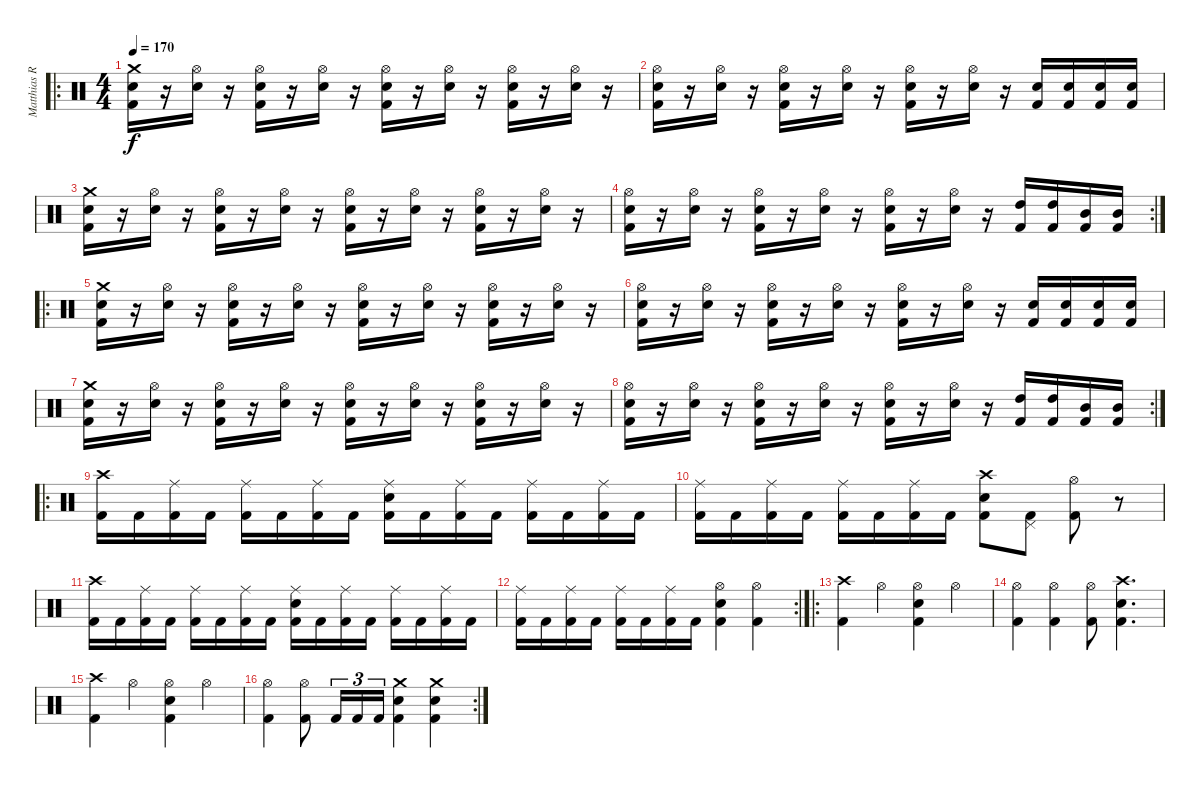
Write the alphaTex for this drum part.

\track ("Matthias R." "Matthias R") {instrument percussion}
\staff {score}
\articulation defaults
\ro
\ts (4 4)
\tempo 170
\clef neutral
\ks c
("Kick (hit) 2" "Snare (hit) 2" "Crash medium (hit)").16{dy f} r.16 ("Snare (hit) 2" "Hi-Hat (open)").16 r.16 ("Kick (hit) 2" "Snare (hit) 2" "Hi-Hat (open)").16 r.16 ("Snare (hit) 2" "Hi-Hat (open)").16 r.16 ("Kick (hit) 2" "Snare (hit) 2" "Hi-Hat (open)").16 r.16 ("Snare (hit) 2" "Hi-Hat (open)").16 r.16 ("Kick (hit) 2" "Snare (hit) 2" "Hi-Hat (open)").16 r.16 ("Snare (hit) 2" "Hi-Hat (open)").16 r.16 |
("Kick (hit) 2" "Snare (hit) 2" "Hi-Hat (open)").16 r.16 ("Snare (hit) 2" "Hi-Hat (open)").16 r.16 ("Kick (hit) 2" "Snare (hit) 2" "Hi-Hat (open)").16 r.16 ("Snare (hit) 2" "Hi-Hat (open)").16 r.16 ("Kick (hit) 2" "Snare (hit) 2" "Hi-Hat (open)").16 r.16 ("Snare (hit) 2" "Hi-Hat (open)").16 r.16 ("Kick (hit) 2" "Snare (hit) 2").16 ("Kick (hit) 2" "Snare (hit) 2").16 ("Kick (hit) 2" "Snare (hit) 2").16 ("Kick (hit) 2" "Snare (hit) 2").16 |
("Kick (hit) 2" "Snare (hit) 2" "Crash medium (hit)").16 r.16 ("Snare (hit) 2" "Hi-Hat (open)").16 r.16 ("Kick (hit) 2" "Snare (hit) 2" "Hi-Hat (open)").16 r.16 ("Snare (hit) 2" "Hi-Hat (open)").16 r.16 ("Kick (hit) 2" "Snare (hit) 2" "Hi-Hat (open)").16 r.16 ("Snare (hit) 2" "Hi-Hat (open)").16 r.16 ("Kick (hit) 2" "Snare (hit) 2" "Hi-Hat (open)").16 r.16 ("Snare (hit) 2" "Hi-Hat (open)").16 r.16 |
\rc 2
("Kick (hit) 2" "Snare (hit) 2" "Hi-Hat (open)").16 r.16 ("Snare (hit) 2" "Hi-Hat (open)").16 r.16 ("Kick (hit) 2" "Snare (hit) 2" "Hi-Hat (open)").16 r.16 ("Snare (hit) 2" "Hi-Hat (open)").16 r.16 ("Kick (hit) 2" "Snare (hit) 2" "Hi-Hat (open)").16 r.16 ("Snare (hit) 2" "Hi-Hat (open)").16 r.16 ("Kick (hit) 2" "High Tom (hit)").16 ("Kick (hit) 2" "High Tom (hit)").16 ("Kick (hit) 2" "Mid Tom (hit)").16 ("Kick (hit) 2" "Mid Tom (hit)").16 |
\ro
("Kick (hit) 2" "Snare (hit) 2" "Crash medium (hit)").16 r.16 ("Snare (hit) 2" "Hi-Hat (open)").16 r.16 ("Kick (hit) 2" "Snare (hit) 2" "Hi-Hat (open)").16 r.16 ("Snare (hit) 2" "Hi-Hat (open)").16 r.16 ("Kick (hit) 2" "Snare (hit) 2" "Hi-Hat (open)").16 r.16 ("Snare (hit) 2" "Hi-Hat (open)").16 r.16 ("Kick (hit) 2" "Snare (hit) 2" "Hi-Hat (open)").16 r.16 ("Snare (hit) 2" "Hi-Hat (open)").16 r.16 |
("Kick (hit) 2" "Snare (hit) 2" "Hi-Hat (open)").16 r.16 ("Snare (hit) 2" "Hi-Hat (open)").16 r.16 ("Kick (hit) 2" "Snare (hit) 2" "Hi-Hat (open)").16 r.16 ("Snare (hit) 2" "Hi-Hat (open)").16 r.16 ("Kick (hit) 2" "Snare (hit) 2" "Hi-Hat (open)").16 r.16 ("Snare (hit) 2" "Hi-Hat (open)").16 r.16 ("Kick (hit) 2" "Snare (hit) 2").16 ("Kick (hit) 2" "Snare (hit) 2").16 ("Kick (hit) 2" "Snare (hit) 2").16 ("Kick (hit) 2" "Snare (hit) 2").16 |
("Kick (hit) 2" "Snare (hit) 2" "Crash medium (hit)").16 r.16 ("Snare (hit) 2" "Hi-Hat (open)").16 r.16 ("Kick (hit) 2" "Snare (hit) 2" "Hi-Hat (open)").16 r.16 ("Snare (hit) 2" "Hi-Hat (open)").16 r.16 ("Kick (hit) 2" "Snare (hit) 2" "Hi-Hat (open)").16 r.16 ("Snare (hit) 2" "Hi-Hat (open)").16 r.16 ("Kick (hit) 2" "Snare (hit) 2" "Hi-Hat (open)").16 r.16 ("Snare (hit) 2" "Hi-Hat (open)").16 r.16 |
\rc 2
("Kick (hit) 2" "Snare (hit) 2" "Hi-Hat (open)").16 r.16 ("Snare (hit) 2" "Hi-Hat (open)").16 r.16 ("Kick (hit) 2" "Snare (hit) 2" "Hi-Hat (open)").16 r.16 ("Snare (hit) 2" "Hi-Hat (open)").16 r.16 ("Kick (hit) 2" "Snare (hit) 2" "Hi-Hat (open)").16 r.16 ("Snare (hit) 2" "Hi-Hat (open)").16 r.16 ("Kick (hit) 2" "High Tom (hit)").16 ("Kick (hit) 2" "High Tom (hit)").16 ("Kick (hit) 2" "Mid Tom (hit)").16 ("Kick (hit) 2" "Mid Tom (hit)").16 |
\ro
("Kick (hit) 2" "Crash high (hit)").16 "Kick (hit) 2".16 ("Kick (hit) 2" "Ride (middle)").16 "Kick (hit) 2".16 ("Kick (hit) 2" "Ride (middle)").16 "Kick (hit) 2".16 ("Kick (hit) 2" "Ride (middle)").16 "Kick (hit) 2".16 ("Kick (hit) 2" "Snare (hit) 2" "Ride (middle)").16 "Kick (hit) 2".16 ("Kick (hit) 2" "Ride (middle)").16 "Kick (hit) 2".16 ("Kick (hit) 2" "Ride (middle)").16 "Kick (hit) 2".16 ("Kick (hit) 2" "Ride (middle)").16 "Kick (hit) 2".16 |
("Kick (hit) 2" "Ride (middle)").16 "Kick (hit) 2".16 ("Kick (hit) 2" "Ride (middle)").16 "Kick (hit) 2".16 ("Kick (hit) 2" "Ride (middle)").16 "Kick (hit) 2".16 ("Kick (hit) 2" "Ride (middle)").16 "Kick (hit) 2".16 ("Kick (hit) 2" "Snare (hit) 2" "Crash high (hit)").8 ("Kick (hit) 2" "Pedal Hi-Hat (hit)").8 ("Kick (hit) 2" "Hi-Hat (open)").8 r.8 |
("Kick (hit) 2" "Crash high (hit)").16 "Kick (hit) 2".16 ("Kick (hit) 2" "Ride (middle)").16 "Kick (hit) 2".16 ("Kick (hit) 2" "Ride (middle)").16 "Kick (hit) 2".16 ("Kick (hit) 2" "Ride (middle)").16 "Kick (hit) 2".16 ("Kick (hit) 2" "Snare (hit) 2" "Ride (middle)").16 "Kick (hit) 2".16 ("Kick (hit) 2" "Ride (middle)").16 "Kick (hit) 2".16 ("Kick (hit) 2" "Ride (middle)").16 "Kick (hit) 2".16 ("Kick (hit) 2" "Ride (middle)").16 "Kick (hit) 2".16 |
\rc 2
("Kick (hit) 2" "Ride (middle)").16 "Kick (hit) 2".16 ("Kick (hit) 2" "Ride (middle)").16 "Kick (hit) 2".16 ("Kick (hit) 2" "Ride (middle)").16 "Kick (hit) 2".16 ("Kick (hit) 2" "Ride (middle)").16 "Kick (hit) 2".16 ("Kick (hit) 2" "Snare (hit) 2" "Hi-Hat (open)").4 ("Kick (hit) 2" "Hi-Hat (open)").4 |
\ro
("Kick (hit) 2" "Crash high (hit)").4 "Hi-Hat (open)".4 ("Kick (hit) 2" "Snare (hit) 2" "Hi-Hat (open)").4 "Hi-Hat (open)".4 |
("Kick (hit) 2" "Hi-Hat (open)").4 ("Kick (hit) 2" "Hi-Hat (open)").4 ("Kick (hit) 2" "Hi-Hat (open)").8 ("Kick (hit) 2" "Snare (hit) 2" "Crash high (hit)").4{d} |
("Kick (hit) 2" "Crash high (hit)").4 "Hi-Hat (open)".4 ("Kick (hit) 2" "Snare (hit) 2" "Hi-Hat (open)").4 "Hi-Hat (open)".4 |
\rc 2
("Kick (hit) 2" "Hi-Hat (open)").4 ("Kick (hit) 2" "Hi-Hat (open)").8 "Kick (hit) 2".16{tu (3 2)} "Kick (hit) 2".16{tu (3 2)} "Kick (hit) 2".16{tu (3 2)} ("Kick (hit) 2" "Snare (hit) 2" "Crash medium (hit)").4 ("Kick (hit) 2" "Snare (hit) 2" "Crash medium (hit)").4
